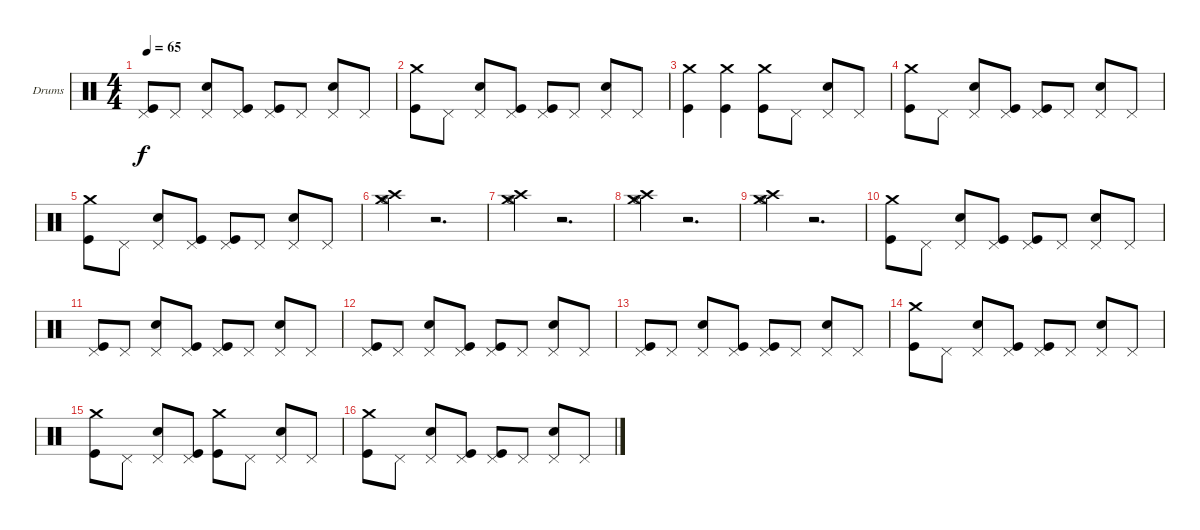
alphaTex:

\bracketExtendMode groupsimilarinstruments
\firstSystemTrackNameOrientation horizontal
\otherSystemsTrackNameOrientation horizontal
\track ("Drumkit" "Drums") {instrument percussion}
\staff {score}
\articulation defaults
\ts (4 4)
\tempo 65
\clef neutral
\ks c
("Pedal Hi-Hat (hit)" "Kick (hit)").8{dy f} "Pedal Hi-Hat (hit)".8 ("Pedal Hi-Hat (hit)" "Snare (hit) 2").8 ("Pedal Hi-Hat (hit)" "Kick (hit)").8 ("Pedal Hi-Hat (hit)" "Kick (hit)").8 "Pedal Hi-Hat (hit)".8 ("Pedal Hi-Hat (hit)" "Snare (hit) 2").8 "Pedal Hi-Hat (hit)".8 |
("Crash medium (hit)" "Kick (hit)").8 "Pedal Hi-Hat (hit)".8 ("Pedal Hi-Hat (hit)" "Snare (hit) 2").8 ("Pedal Hi-Hat (hit)" "Kick (hit)").8 ("Pedal Hi-Hat (hit)" "Kick (hit)").8 "Pedal Hi-Hat (hit)".8 ("Pedal Hi-Hat (hit)" "Snare (hit) 2").8 "Pedal Hi-Hat (hit)".8 |
("Crash medium (hit)" "Kick (hit)").4 ("Crash medium (hit)" "Kick (hit)").4 ("Crash medium (hit)" "Kick (hit)").8 "Pedal Hi-Hat (hit)".8 ("Pedal Hi-Hat (hit)" "Snare (hit) 2").8 "Pedal Hi-Hat (hit)".8 |
("Crash medium (hit)" "Kick (hit)").8 "Pedal Hi-Hat (hit)".8 ("Pedal Hi-Hat (hit)" "Snare (hit) 2").8 ("Pedal Hi-Hat (hit)" "Kick (hit)").8 ("Pedal Hi-Hat (hit)" "Kick (hit)").8 "Pedal Hi-Hat (hit)".8 ("Pedal Hi-Hat (hit)" "Snare (hit) 2").8 "Pedal Hi-Hat (hit)".8 |
("Crash medium (hit)" "Kick (hit)").8 "Pedal Hi-Hat (hit)".8 ("Pedal Hi-Hat (hit)" "Snare (hit) 2").8 ("Pedal Hi-Hat (hit)" "Kick (hit)").8 ("Pedal Hi-Hat (hit)" "Kick (hit)").8 "Pedal Hi-Hat (hit)".8 ("Pedal Hi-Hat (hit)" "Snare (hit) 2").8 "Pedal Hi-Hat (hit)".8 |
("Crash medium (hit)" "Crash high (hit)" "Hi-Hat (open)").4 r.2{d} |
("Crash medium (hit)" "Crash high (hit)" "Hi-Hat (open)").4 r.2{d} |
("Crash medium (hit)" "Crash high (hit)" "Hi-Hat (open)").4 r.2{d} |
("Crash medium (hit)" "Crash high (hit)" "Hi-Hat (open)").4 r.2{d} |
("Crash medium (hit)" "Kick (hit)").8 "Pedal Hi-Hat (hit)".8 ("Pedal Hi-Hat (hit)" "Snare (hit) 2").8 ("Pedal Hi-Hat (hit)" "Kick (hit)").8 ("Pedal Hi-Hat (hit)" "Kick (hit)").8 "Pedal Hi-Hat (hit)".8 ("Pedal Hi-Hat (hit)" "Snare (hit) 2").8 "Pedal Hi-Hat (hit)".8 |
("Pedal Hi-Hat (hit)" "Kick (hit)").8 "Pedal Hi-Hat (hit)".8 ("Pedal Hi-Hat (hit)" "Snare (hit) 2").8 ("Pedal Hi-Hat (hit)" "Kick (hit)").8 ("Pedal Hi-Hat (hit)" "Kick (hit)").8 "Pedal Hi-Hat (hit)".8 ("Pedal Hi-Hat (hit)" "Snare (hit) 2").8 "Pedal Hi-Hat (hit)".8 |
("Pedal Hi-Hat (hit)" "Kick (hit)").8 "Pedal Hi-Hat (hit)".8 ("Pedal Hi-Hat (hit)" "Snare (hit) 2").8 ("Pedal Hi-Hat (hit)" "Kick (hit)").8 ("Pedal Hi-Hat (hit)" "Kick (hit)").8 "Pedal Hi-Hat (hit)".8 ("Pedal Hi-Hat (hit)" "Snare (hit) 2").8 "Pedal Hi-Hat (hit)".8 |
("Pedal Hi-Hat (hit)" "Kick (hit)").8 "Pedal Hi-Hat (hit)".8 ("Pedal Hi-Hat (hit)" "Snare (hit) 2").8 ("Pedal Hi-Hat (hit)" "Kick (hit)").8 ("Pedal Hi-Hat (hit)" "Kick (hit)").8 "Pedal Hi-Hat (hit)".8 ("Pedal Hi-Hat (hit)" "Snare (hit) 2").8 "Pedal Hi-Hat (hit)".8 |
("Crash medium (hit)" "Kick (hit)").8 "Pedal Hi-Hat (hit)".8 ("Pedal Hi-Hat (hit)" "Snare (hit) 2").8 ("Pedal Hi-Hat (hit)" "Kick (hit)").8 ("Pedal Hi-Hat (hit)" "Kick (hit)").8 "Pedal Hi-Hat (hit)".8 ("Pedal Hi-Hat (hit)" "Snare (hit) 2").8 "Pedal Hi-Hat (hit)".8 |
("Crash medium (hit)" "Kick (hit)").8 "Pedal Hi-Hat (hit)".8 ("Pedal Hi-Hat (hit)" "Snare (hit) 2").8 ("Pedal Hi-Hat (hit)" "Kick (hit)").8 ("Crash medium (hit)" "Kick (hit)").8 "Pedal Hi-Hat (hit)".8 ("Pedal Hi-Hat (hit)" "Snare (hit) 2").8 "Pedal Hi-Hat (hit)".8 |
("Crash medium (hit)" "Kick (hit)").8 "Pedal Hi-Hat (hit)".8 ("Pedal Hi-Hat (hit)" "Snare (hit) 2").8 ("Pedal Hi-Hat (hit)" "Kick (hit)").8 ("Pedal Hi-Hat (hit)" "Kick (hit)").8 "Pedal Hi-Hat (hit)".8 ("Pedal Hi-Hat (hit)" "Snare (hit) 2").8 "Pedal Hi-Hat (hit)".8
